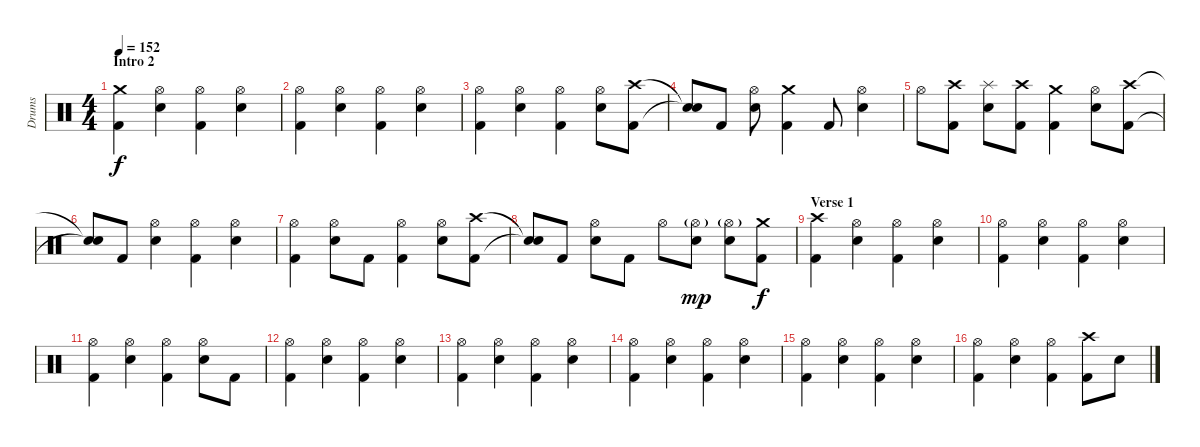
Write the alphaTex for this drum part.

\track ("Drums" "Drums") {instrument percussion}
\staff {score}
\articulation defaults
\ts (4 4)
\section ("" "Intro 2")
\tempo 152
\clef neutral
\ks c
("Crash medium (hit)" "Kick (hit) 2").4{dy f} ("Hi-Hat (open)" "Snare (hit) 2").4 ("Hi-Hat (open)" "Kick (hit) 2").4 ("Hi-Hat (open)" "Snare (hit) 2").4 |
("Hi-Hat (open)" "Kick (hit) 2").4 ("Hi-Hat (open)" "Snare (hit) 2").4 ("Hi-Hat (open)" "Kick (hit) 2").4 ("Hi-Hat (open)" "Snare (hit) 2").4 |
("Hi-Hat (open)" "Kick (hit) 2").4 ("Hi-Hat (open)" "Snare (hit) 2").4 ("Hi-Hat (open)" "Kick (hit) 2").4 ("Hi-Hat (open)" "Snare (hit) 2").8 ("Crash high (hit)" "Kick (hit) 2").8 |
("Snare (hit)"{t} "Snare (hit)"{t}).8 "Kick (hit) 2".8 ("Hi-Hat (open)" "Snare (hit) 2").8 ("Crash medium (hit)" "Kick (hit) 2").4 "Kick (hit) 2".8 ("Hi-Hat (open)" "Snare (hit) 2").4 |
"Hi-Hat (open)".8 ("Crash high (hit)" "Kick (hit) 2").8 ("Splash (hit)" "Snare (hit) 2").8 ("Crash high (hit)" "Kick (hit) 2").8 ("Crash medium (hit)" "Kick (hit) 2").4 ("Hi-Hat (open)" "Snare (hit) 2").8 ("Crash high (hit)" "Kick (hit) 2").8 |
("Snare (hit)"{t} "Snare (hit)"{t}).8 "Kick (hit) 2".8 ("Hi-Hat (open)" "Snare (hit) 2").4 ("Hi-Hat (open)" "Kick (hit) 2").4 ("Hi-Hat (open)" "Snare (hit) 2").4 |
("Hi-Hat (open)" "Kick (hit) 2").4 ("Hi-Hat (open)" "Snare (hit) 2").8 "Kick (hit) 2".8 ("Hi-Hat (open)" "Kick (hit) 2").4 ("Hi-Hat (open)" "Snare (hit) 2").8 ("Crash high (hit)" "Kick (hit) 2").8 |
("Snare (hit)"{t} "Snare (hit)"{t}).8 "Kick (hit) 2".8 ("Hi-Hat (open)" "Snare (hit) 2").8 "Kick (hit) 2".8 "Hi-Hat (open)".8 ("Hi-Hat (open)"{g} "Snare (hit) 2").8{dy mp} ("Hi-Hat (open)"{g} "Snare (hit) 2").8 ("Crash medium (hit)" "Kick (hit) 2").8{dy f} |
\section ("" "Verse 1")
("Crash high (hit)" "Kick (hit) 2").4 ("Hi-Hat (open)" "Snare (hit) 2").4 ("Hi-Hat (open)" "Kick (hit) 2").4 ("Hi-Hat (open)" "Snare (hit) 2").4 |
("Hi-Hat (open)" "Kick (hit) 2").4 ("Hi-Hat (open)" "Snare (hit) 2").4 ("Hi-Hat (open)" "Kick (hit) 2").4 ("Hi-Hat (open)" "Snare (hit) 2").4 |
("Hi-Hat (open)" "Kick (hit) 2").4 ("Hi-Hat (open)" "Snare (hit) 2").4 ("Hi-Hat (open)" "Kick (hit) 2").4 ("Hi-Hat (open)" "Snare (hit) 2").8 "Kick (hit) 2".8 |
("Hi-Hat (open)" "Kick (hit) 2").4 ("Hi-Hat (open)" "Snare (hit) 2").4 ("Hi-Hat (open)" "Kick (hit) 2").4 ("Hi-Hat (open)" "Snare (hit) 2").4 |
("Hi-Hat (open)" "Kick (hit) 2").4 ("Hi-Hat (open)" "Snare (hit) 2").4 ("Hi-Hat (open)" "Kick (hit) 2").4 ("Hi-Hat (open)" "Snare (hit) 2").4 |
("Hi-Hat (open)" "Kick (hit) 2").4 ("Hi-Hat (open)" "Snare (hit) 2").4 ("Hi-Hat (open)" "Kick (hit) 2").4 ("Hi-Hat (open)" "Snare (hit) 2").4 |
("Hi-Hat (open)" "Kick (hit) 2").4 ("Hi-Hat (open)" "Snare (hit) 2").4 ("Hi-Hat (open)" "Kick (hit) 2").4 ("Hi-Hat (open)" "Snare (hit) 2").4 |
("Hi-Hat (open)" "Kick (hit) 2").4 ("Hi-Hat (open)" "Snare (hit) 2").4 ("Hi-Hat (open)" "Kick (hit) 2").4 ("Crash high (hit)" "Kick (hit) 2").8 "Snare (hit)"{x}.8{volume 0}
